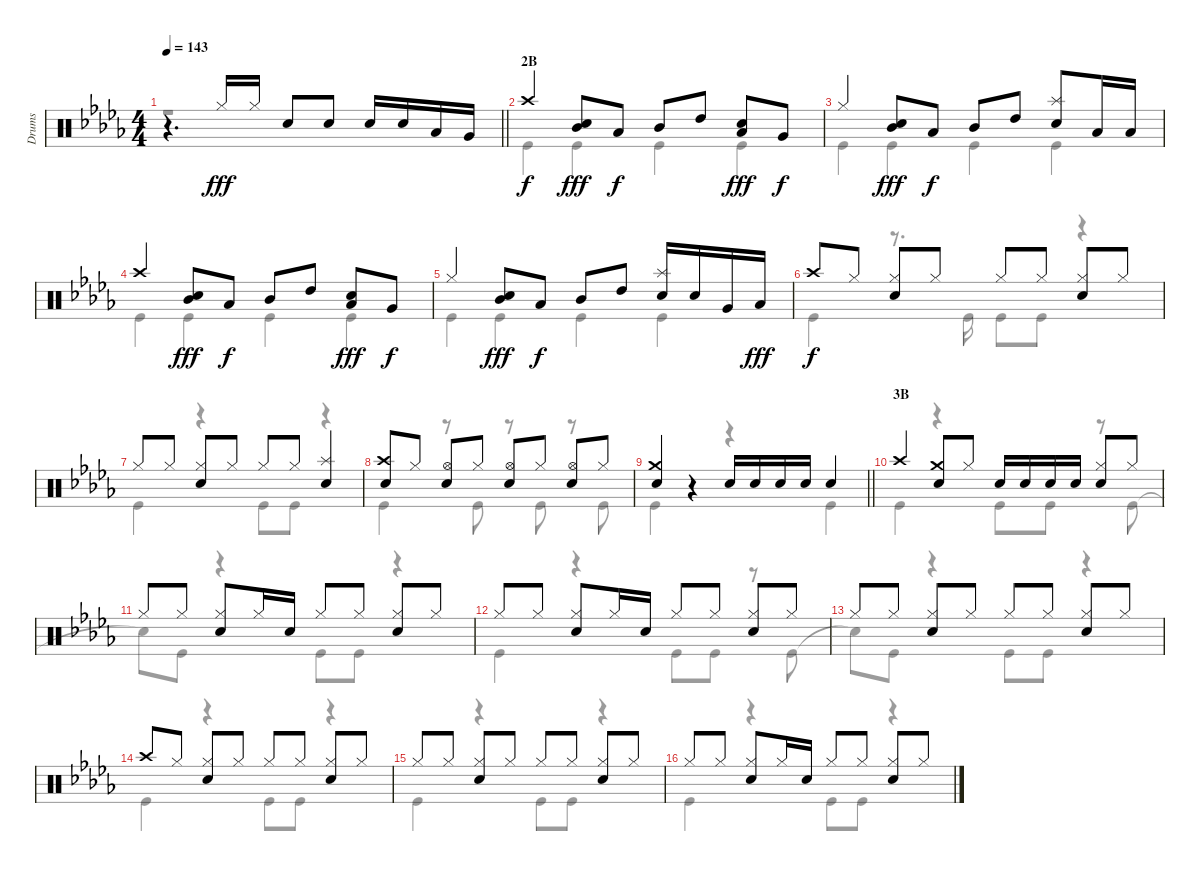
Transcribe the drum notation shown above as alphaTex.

\track ("Drums" "Drums") {instrument percussion}
\staff {score}
\articulation defaults
\voice
\ts (4 4)
\tempo 143
\clef neutral
\barLineRight lightlight
\ks db
r.4{d dy f} "Hi-Hat (closed)".16{dy fff} "Hi-Hat (closed)".16 "Snare (hit) 2".8 "Snare (hit) 2".8 "Snare (hit) 2".16 "Snare (hit) 2".16 "Low Tom (hit)".16 "Very Low Tom (hit)".16 |
\section ("" "2B")
"Crash high (hit)".4{dy f} ("Mid Tom (hit)" "Snare (hit) 2").8{dy fff} "Low Tom (hit)".8{dy f} "Mid Tom (hit)".8 "High Tom (hit)".8 ("Low Tom (hit)" "Snare (hit) 2").8{dy fff} "Very Low Tom (hit)".8{dy f} |
"Hi-Hat (closed)".4 ("Mid Tom (hit)" "Snare (hit) 2").8{dy fff} "Low Tom (hit)".8{dy f} "Mid Tom (hit)".8 "High Tom (hit)".8 ("Splash (hit)" "Snare (hit) 2").8 "Low Tom (hit)".16 "Low Floor Tom (hit)".16 |
"Crash high (hit)".4 ("Mid Tom (hit)" "Snare (hit) 2").8{dy fff} "Low Tom (hit)".8{dy f} "Mid Tom (hit)".8 "High Tom (hit)".8 ("Low Tom (hit)" "Snare (hit) 2").8{dy fff} "Very Low Tom (hit)".8{dy f} |
"Hi-Hat (closed)".4 ("Mid Tom (hit)" "Snare (hit) 2").8{dy fff} "Low Tom (hit)".8{dy f} "Mid Tom (hit)".8 "High Tom (hit)".8 ("Splash (hit)" "Snare (hit) 2").16 "Snare (hit) 2".16 "Very Low Tom (hit)".16 "Low Floor Tom (hit)".16{dy fff} |
"Crash high (hit)".8{dy f} "Hi-Hat (closed)".8 ("Hi-Hat (closed)" "Snare (hit) 2").8 "Hi-Hat (closed)".8 "Hi-Hat (closed)".8 "Hi-Hat (closed)".8 ("Hi-Hat (closed)" "Snare (hit) 2").8 "Hi-Hat (closed)".8 |
"Hi-Hat (closed)".8 "Hi-Hat (closed)".8 ("Hi-Hat (closed)" "Snare (hit) 2").8 "Hi-Hat (closed)".8 "Hi-Hat (closed)".8 "Hi-Hat (closed)".8 ("Splash (hit)" "Snare (hit) 2").4 |
("Crash high (hit)" "Snare (hit) 2").8 "Hi-Hat (closed)".8 ("Hi-Hat (open)" "Snare (hit) 2").8 "Hi-Hat (closed)".8 ("Hi-Hat (open)" "Snare (hit) 2").8 "Hi-Hat (closed)".8 ("Hi-Hat (open)" "Snare (hit) 2").8 "Hi-Hat (closed)".8 |
\barLineRight lightlight
("Crash medium (hit)" "Snare (hit) 2").4 r.4 "Snare (hit) 2".16 "Snare (hit) 2".16 "Snare (hit) 2".16 "Snare (hit) 2".16 "Snare (hit) 2".4 |
\section ("" "3B")
"Crash high (hit)".4 ("Crash medium (hit)" "Snare (hit) 2").8 "Hi-Hat (closed)".8 "Snare (hit) 2".16 "Snare (hit) 2".16 "Snare (hit) 2".16 "Snare (hit) 2".16 ("Hi-Hat (closed)" "Snare (hit) 2").8 "Hi-Hat (closed)".8 |
"Hi-Hat (closed)".8 "Hi-Hat (closed)".8 ("Hi-Hat (closed)" "Snare (hit) 2").8 "Hi-Hat (closed)".16 "Snare (hit) 2".16 "Hi-Hat (closed)".8 "Hi-Hat (closed)".8 ("Hi-Hat (closed)" "Snare (hit) 2").8 "Hi-Hat (closed)".8 |
"Hi-Hat (closed)".8 "Hi-Hat (closed)".8 ("Hi-Hat (closed)" "Snare (hit) 2").8 "Hi-Hat (closed)".16 "Snare (hit) 2".16 "Hi-Hat (closed)".8 "Hi-Hat (closed)".8 ("Hi-Hat (closed)" "Snare (hit) 2").8 "Hi-Hat (closed)".8 |
"Hi-Hat (closed)".8 "Hi-Hat (closed)".8 ("Hi-Hat (closed)" "Snare (hit) 2").8 "Hi-Hat (closed)".8 "Hi-Hat (closed)".8 "Hi-Hat (closed)".8 ("Hi-Hat (closed)" "Snare (hit) 2").8 "Hi-Hat (closed)".8 |
"Crash high (hit)".8 "Hi-Hat (closed)".8 ("Hi-Hat (closed)" "Snare (hit) 2").8 "Hi-Hat (closed)".8 "Hi-Hat (closed)".8 "Hi-Hat (closed)".8 ("Hi-Hat (closed)" "Snare (hit) 2").8 "Hi-Hat (closed)".8 |
"Hi-Hat (closed)".8 "Hi-Hat (closed)".8 ("Hi-Hat (closed)" "Snare (hit) 2").8 "Hi-Hat (closed)".8 "Hi-Hat (closed)".8 "Hi-Hat (closed)".8 ("Hi-Hat (closed)" "Snare (hit) 2").8 "Hi-Hat (closed)".8 |
"Hi-Hat (closed)".8 "Hi-Hat (closed)".8 ("Hi-Hat (closed)" "Snare (hit) 2").8 "Hi-Hat (closed)".16 "Snare (hit) 2".16 "Hi-Hat (closed)".8 "Hi-Hat (closed)".8 ("Hi-Hat (closed)" "Snare (hit) 2").8 "Hi-Hat (closed)".8
\voice
\clef neutral
\ottava regular
\simile none
\barLineRight lightlight
\ks db
r.1{dy f} |
"Kick (hit)".4 "Kick (hit)".4 "Kick (hit)".4 "Kick (hit)".4 |
"Kick (hit)".4 "Kick (hit)".4 "Kick (hit)".4 "Kick (hit)".4 |
"Kick (hit)".4 "Kick (hit)".4 "Kick (hit)".4 "Kick (hit)".4 |
"Kick (hit)".4 "Kick (hit)".4 "Kick (hit)".4 "Kick (hit)".4 |
"Kick (hit)".4 r.8{d} "Kick (hit)".16 "Kick (hit)".8 "Kick (hit)".8 r.4 |
"Kick (hit)".4 r.4 "Kick (hit)".8 "Kick (hit)".8 r.4 |
"Kick (hit)".4 r.8 "Kick (hit)".8 r.8 "Kick (hit)".8 r.8 "Kick (hit)".8 |
\barLineRight lightlight "Kick (hit)".4
r.4 r.4 "Kick (hit)".4 |
"Kick (hit)".4 r.4 "Kick (hit)".8 "Kick (hit)".8 r.8 "Kick (hit)".8 |
"Snare (hit)"{t}.8 "Kick (hit)".8 r.4 "Kick (hit)".8 "Kick (hit)".8 r.4 |
"Kick (hit)".4 r.4 "Kick (hit)".8 "Kick (hit)".8 r.8 "Kick (hit)".8 |
"Snare (hit)"{t}.8 "Kick (hit)".8 r.4 "Kick (hit)".8 "Kick (hit)".8 r.4 |
"Kick (hit)".4 r.4 "Kick (hit)".8 "Kick (hit)".8 r.4 |
"Kick (hit)".4 r.4 "Kick (hit)".8 "Kick (hit)".8 r.4 |
"Kick (hit)".4 r.4 "Kick (hit)".8 "Kick (hit)".8 r.4
